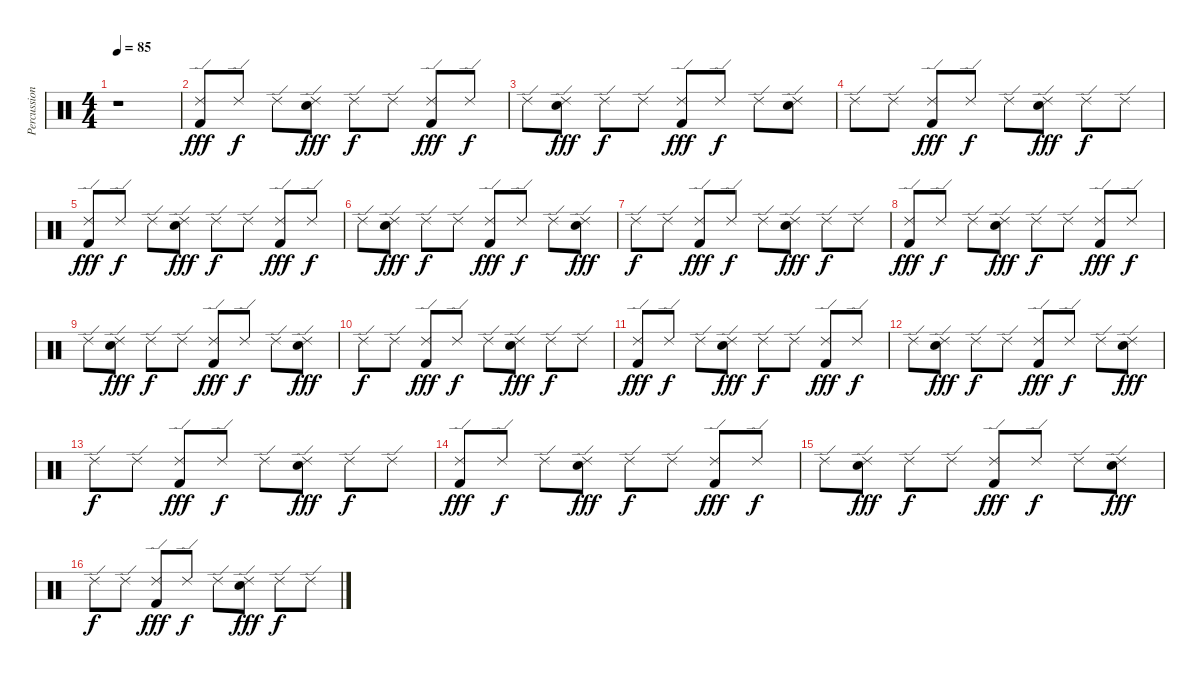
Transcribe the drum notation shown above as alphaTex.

\track ("Percussion" "Percussion") {instrument percussion}
\staff {score}
\articulation defaults
\ts (4 4)
\tempo 85
\clef neutral
\ks c
r.1{dy fff} |
("Ride (edge) 2" "Kick (hit) 2").8 "Ride (edge) 2".8{dy f} "Ride (edge) 2".8 ("Ride (edge) 2" "Electric Snare (hit)").8{dy fff} "Ride (edge) 2".8{dy f} "Ride (edge) 2".8 ("Ride (edge) 2" "Kick (hit) 2").8{dy fff} "Ride (edge) 2".8{dy f} |
"Ride (edge) 2".8 ("Ride (edge) 2" "Electric Snare (hit)").8{dy fff} "Ride (edge) 2".8{dy f} "Ride (edge) 2".8 ("Ride (edge) 2" "Kick (hit) 2").8{dy fff} "Ride (edge) 2".8{dy f} "Ride (edge) 2".8 ("Ride (edge) 2" "Electric Snare (hit)").8 |
"Ride (edge) 2".8 "Ride (edge) 2".8 ("Ride (edge) 2" "Kick (hit) 2").8{dy fff} "Ride (edge) 2".8{dy f} "Ride (edge) 2".8 ("Ride (edge) 2" "Electric Snare (hit)").8{dy fff} "Ride (edge) 2".8{dy f} "Ride (edge) 2".8 |
("Ride (edge) 2" "Kick (hit) 2").8{dy fff} "Ride (edge) 2".8{dy f} "Ride (edge) 2".8 ("Ride (edge) 2" "Electric Snare (hit)").8{dy fff} "Ride (edge) 2".8{dy f} "Ride (edge) 2".8 ("Ride (edge) 2" "Kick (hit) 2").8{dy fff} "Ride (edge) 2".8{dy f} |
"Ride (edge) 2".8 ("Ride (edge) 2" "Electric Snare (hit)").8{dy fff} "Ride (edge) 2".8{dy f} "Ride (edge) 2".8 ("Ride (edge) 2" "Kick (hit) 2").8{dy fff} "Ride (edge) 2".8{dy f} "Ride (edge) 2".8 ("Ride (edge) 2" "Electric Snare (hit)").8{dy fff} |
"Ride (edge) 2".8{dy f} "Ride (edge) 2".8 ("Ride (edge) 2" "Kick (hit) 2").8{dy fff} "Ride (edge) 2".8{dy f} "Ride (edge) 2".8 ("Ride (edge) 2" "Electric Snare (hit)").8{dy fff} "Ride (edge) 2".8{dy f} "Ride (edge) 2".8 |
("Ride (edge) 2" "Kick (hit) 2").8{dy fff} "Ride (edge) 2".8{dy f} "Ride (edge) 2".8 ("Ride (edge) 2" "Electric Snare (hit)").8{dy fff} "Ride (edge) 2".8{dy f} "Ride (edge) 2".8 ("Ride (edge) 2" "Kick (hit) 2").8{dy fff} "Ride (edge) 2".8{dy f} |
"Ride (edge) 2".8 ("Ride (edge) 2" "Electric Snare (hit)").8{dy fff} "Ride (edge) 2".8{dy f} "Ride (edge) 2".8 ("Ride (edge) 2" "Kick (hit) 2").8{dy fff} "Ride (edge) 2".8{dy f} "Ride (edge) 2".8 ("Ride (edge) 2" "Electric Snare (hit)").8{dy fff} |
"Ride (edge) 2".8{dy f} "Ride (edge) 2".8 ("Ride (edge) 2" "Kick (hit) 2").8{dy fff} "Ride (edge) 2".8{dy f} "Ride (edge) 2".8 ("Ride (edge) 2" "Electric Snare (hit)").8{dy fff} "Ride (edge) 2".8{dy f} "Ride (edge) 2".8 |
("Ride (edge) 2" "Kick (hit) 2").8{dy fff} "Ride (edge) 2".8{dy f} "Ride (edge) 2".8 ("Ride (edge) 2" "Electric Snare (hit)").8{dy fff} "Ride (edge) 2".8{dy f} "Ride (edge) 2".8 ("Ride (edge) 2" "Kick (hit) 2").8{dy fff} "Ride (edge) 2".8{dy f} |
"Ride (edge) 2".8 ("Ride (edge) 2" "Electric Snare (hit)").8{dy fff} "Ride (edge) 2".8{dy f} "Ride (edge) 2".8 ("Ride (edge) 2" "Kick (hit) 2").8{dy fff} "Ride (edge) 2".8{dy f} "Ride (edge) 2".8 ("Ride (edge) 2" "Electric Snare (hit)").8{dy fff} |
"Ride (edge) 2".8{dy f} "Ride (edge) 2".8 ("Ride (edge) 2" "Kick (hit) 2").8{dy fff} "Ride (edge) 2".8{dy f} "Ride (edge) 2".8 ("Ride (edge) 2" "Electric Snare (hit)").8{dy fff} "Ride (edge) 2".8{dy f} "Ride (edge) 2".8 |
("Ride (edge) 2" "Kick (hit) 2").8{dy fff} "Ride (edge) 2".8{dy f} "Ride (edge) 2".8 ("Ride (edge) 2" "Electric Snare (hit)").8{dy fff} "Ride (edge) 2".8{dy f} "Ride (edge) 2".8 ("Ride (edge) 2" "Kick (hit) 2").8{dy fff} "Ride (edge) 2".8{dy f} |
"Ride (edge) 2".8 ("Ride (edge) 2" "Electric Snare (hit)").8{dy fff} "Ride (edge) 2".8{dy f} "Ride (edge) 2".8 ("Ride (edge) 2" "Kick (hit) 2").8{dy fff} "Ride (edge) 2".8{dy f} "Ride (edge) 2".8 ("Ride (edge) 2" "Electric Snare (hit)").8{dy fff} |
"Ride (edge) 2".8{dy f} "Ride (edge) 2".8 ("Ride (edge) 2" "Kick (hit) 2").8{dy fff} "Ride (edge) 2".8{dy f} "Ride (edge) 2".8 ("Ride (edge) 2" "Electric Snare (hit)").8{dy fff} "Ride (edge) 2".8{dy f} "Ride (edge) 2".8
